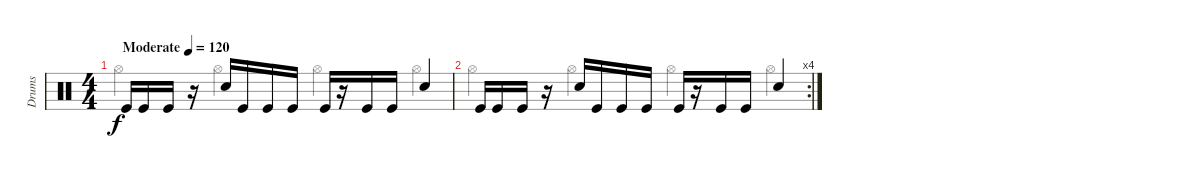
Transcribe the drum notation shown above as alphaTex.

\track ("Drums" "Drums") {instrument percussion}
\staff {score}
\articulation defaults
\voice
\ts (4 4)
\tempo (120 "Moderate")
\clef neutral
\ks c "Kick (hit)".16{dy f} "Kick (hit)".16 "Kick (hit)".16
r.16 "Snare (hit) 2".16 "Kick (hit)".16 "Kick (hit)".16 "Kick (hit)".16 "Kick (hit)".16 r.16 "Kick (hit)".16 "Kick (hit)".16 "Snare (hit) 2".4 |
\rc 4 "Kick (hit)".16 "Kick (hit)".16 "Kick (hit)".16
r.16 "Snare (hit) 2".16 "Kick (hit)".16 "Kick (hit)".16 "Kick (hit)".16 "Kick (hit)".16 r.16 "Kick (hit)".16 "Kick (hit)".16 "Snare (hit) 2".4
\voice
\clef neutral
\ottava regular
\simile none
\ks c "Hi-Hat (open)".4{dy f} "Hi-Hat (open)".4 "Hi-Hat (open)".4 "Hi-Hat (open)".4
|
"Hi-Hat (open)".4 "Hi-Hat (open)".4 "Hi-Hat (open)".4 "Hi-Hat (open)".4
